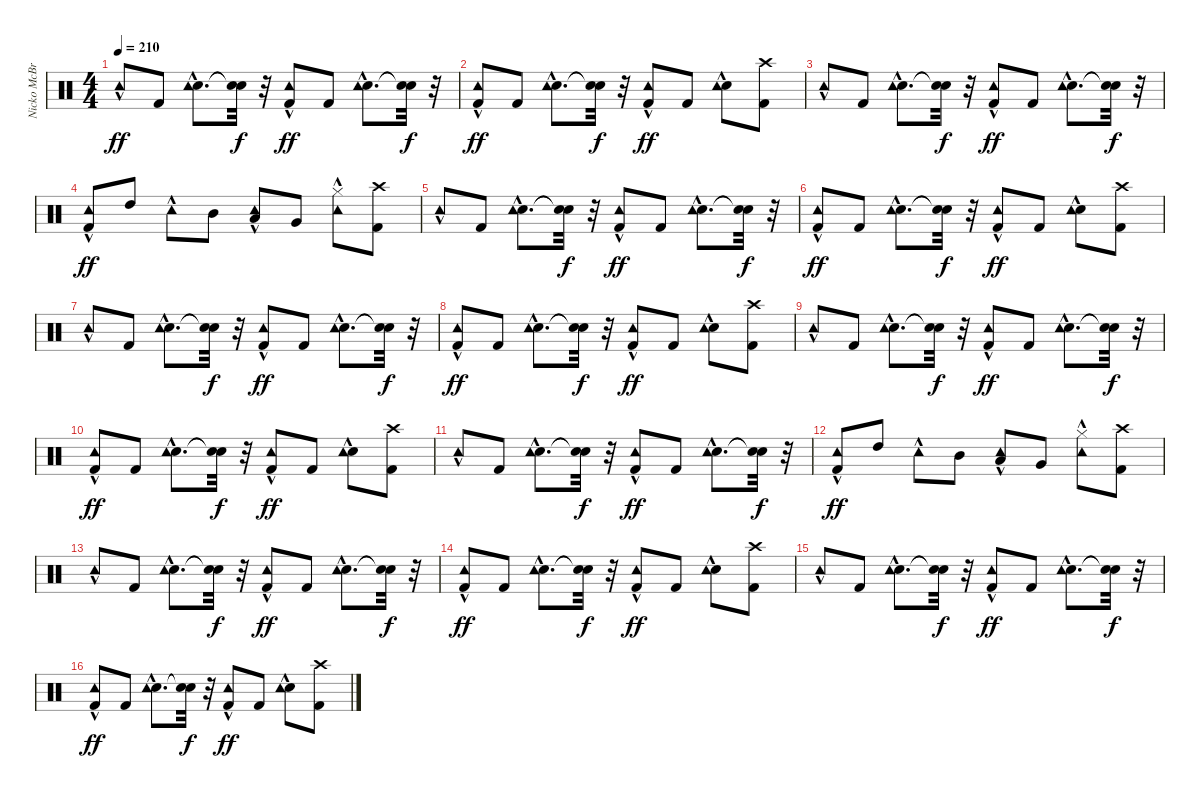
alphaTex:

\track ("Nicko McBrain" "Nicko McBr") {instrument percussion}
\staff {score}
\articulation defaults
\ts (4 4)
\tempo 210
\clef neutral
\ks c "Tambourine (hit)"{hac}.8{dy ff} "Kick (hit) 2".8
("Snare (hit) 2"{hac} "Tambourine (hit)"{hac}).8{d} ("Snare (hit)"{t} "Snare (hit)"{t}).32{dy f} r.32 ("Kick (hit) 2" "Tambourine (hit)"{hac}).8{dy ff} "Kick (hit) 2".8 ("Snare (hit) 2"{hac} "Tambourine (hit)"{hac}).8{d} ("Snare (hit)"{t} "Snare (hit)"{t}).32{dy f} r.32 |
("Kick (hit) 2" "Tambourine (hit)"{hac}).8{dy ff} "Kick (hit) 2".8 ("Snare (hit) 2"{hac} "Tambourine (hit)"{hac}).8{d} ("Snare (hit)"{t} "Snare (hit)"{t}).32{dy f} r.32 ("Kick (hit) 2" "Tambourine (hit)"{hac}).8{dy ff} "Kick (hit) 2".8 ("Snare (hit) 2" "Tambourine (hit)"{hac}).8 ("Kick (hit) 2" "Crash high (hit)").8 |
"Tambourine (hit)"{hac}.8 "Kick (hit) 2".8 ("Snare (hit) 2"{hac} "Tambourine (hit)"{hac}).8{d} ("Snare (hit)"{t} "Snare (hit)"{t}).32{dy f} r.32 ("Kick (hit) 2" "Tambourine (hit)"{hac}).8{dy ff} "Kick (hit) 2".8 ("Snare (hit) 2"{hac} "Tambourine (hit)"{hac}).8{d} ("Snare (hit)"{t} "Snare (hit)"{t}).32{dy f} r.32 |
("Kick (hit) 2" "Tambourine (hit)"{hac}).8{dy ff} "High Tom (hit)".8 "Tambourine (hit)"{hac}.8 "Mid Tom (hit)".8 ("Low Tom (hit)" "Tambourine (hit)"{hac}).8 "Very Low Tom (hit)".8 ("Hi-Hat (closed)" "Tambourine (hit)"{hac}).8 ("Kick (hit) 2" "Crash high (hit)").8 |
"Tambourine (hit)"{hac}.8 "Kick (hit) 2".8 ("Snare (hit) 2"{hac} "Tambourine (hit)"{hac}).8{d} ("Snare (hit)"{t} "Snare (hit)"{t}).32{dy f} r.32 ("Kick (hit) 2" "Tambourine (hit)"{hac}).8{dy ff} "Kick (hit) 2".8 ("Snare (hit) 2"{hac} "Tambourine (hit)"{hac}).8{d} ("Snare (hit)"{t} "Snare (hit)"{t}).32{dy f} r.32 |
("Kick (hit) 2" "Tambourine (hit)"{hac}).8{dy ff} "Kick (hit) 2".8 ("Snare (hit) 2"{hac} "Tambourine (hit)"{hac}).8{d} ("Snare (hit)"{t} "Snare (hit)"{t}).32{dy f} r.32 ("Kick (hit) 2" "Tambourine (hit)"{hac}).8{dy ff} "Kick (hit) 2".8 ("Snare (hit) 2" "Tambourine (hit)"{hac}).8 ("Kick (hit) 2" "Crash high (hit)").8 |
"Tambourine (hit)"{hac}.8 "Kick (hit) 2".8 ("Snare (hit) 2"{hac} "Tambourine (hit)"{hac}).8{d} ("Snare (hit)"{t} "Snare (hit)"{t}).32{dy f} r.32 ("Kick (hit) 2" "Tambourine (hit)"{hac}).8{dy ff} "Kick (hit) 2".8 ("Snare (hit) 2"{hac} "Tambourine (hit)"{hac}).8{d} ("Snare (hit)"{t} "Snare (hit)"{t}).32{dy f} r.32 |
("Kick (hit) 2" "Tambourine (hit)"{hac}).8{dy ff} "Kick (hit) 2".8 ("Snare (hit) 2"{hac} "Tambourine (hit)"{hac}).8{d} ("Snare (hit)"{t} "Snare (hit)"{t}).32{dy f} r.32 ("Kick (hit) 2" "Tambourine (hit)"{hac}).8{dy ff} "Kick (hit) 2".8 ("Snare (hit) 2" "Tambourine (hit)"{hac}).8 ("Kick (hit) 2" "Crash high (hit)").8 |
"Tambourine (hit)"{hac}.8 "Kick (hit) 2".8 ("Snare (hit) 2"{hac} "Tambourine (hit)"{hac}).8{d} ("Snare (hit)"{t} "Snare (hit)"{t}).32{dy f} r.32 ("Kick (hit) 2" "Tambourine (hit)"{hac}).8{dy ff} "Kick (hit) 2".8 ("Snare (hit) 2"{hac} "Tambourine (hit)"{hac}).8{d} ("Snare (hit)"{t} "Snare (hit)"{t}).32{dy f} r.32 |
("Kick (hit) 2" "Tambourine (hit)"{hac}).8{dy ff} "Kick (hit) 2".8 ("Snare (hit) 2"{hac} "Tambourine (hit)"{hac}).8{d} ("Snare (hit)"{t} "Snare (hit)"{t}).32{dy f} r.32 ("Kick (hit) 2" "Tambourine (hit)"{hac}).8{dy ff} "Kick (hit) 2".8 ("Snare (hit) 2" "Tambourine (hit)"{hac}).8 ("Kick (hit) 2" "Crash high (hit)").8 |
"Tambourine (hit)"{hac}.8 "Kick (hit) 2".8 ("Snare (hit) 2"{hac} "Tambourine (hit)"{hac}).8{d} ("Snare (hit)"{t} "Snare (hit)"{t}).32{dy f} r.32 ("Kick (hit) 2" "Tambourine (hit)"{hac}).8{dy ff} "Kick (hit) 2".8 ("Snare (hit) 2"{hac} "Tambourine (hit)"{hac}).8{d} ("Snare (hit)"{t} "Snare (hit)"{t}).32{dy f} r.32 |
("Kick (hit) 2" "Tambourine (hit)"{hac}).8{dy ff} "High Tom (hit)".8 "Tambourine (hit)"{hac}.8 "Mid Tom (hit)".8 ("Low Tom (hit)" "Tambourine (hit)"{hac}).8 "Very Low Tom (hit)".8 ("Hi-Hat (closed)" "Tambourine (hit)"{hac}).8 ("Kick (hit) 2" "Crash high (hit)").8 |
"Tambourine (hit)"{hac}.8 "Kick (hit) 2".8 ("Snare (hit) 2"{hac} "Tambourine (hit)"{hac}).8{d} ("Snare (hit)"{t} "Snare (hit)"{t}).32{dy f} r.32 ("Kick (hit) 2" "Tambourine (hit)"{hac}).8{dy ff} "Kick (hit) 2".8 ("Snare (hit) 2"{hac} "Tambourine (hit)"{hac}).8{d} ("Snare (hit)"{t} "Snare (hit)"{t}).32{dy f} r.32 |
("Kick (hit) 2" "Tambourine (hit)"{hac}).8{dy ff} "Kick (hit) 2".8 ("Snare (hit) 2"{hac} "Tambourine (hit)"{hac}).8{d} ("Snare (hit)"{t} "Snare (hit)"{t}).32{dy f} r.32 ("Kick (hit) 2" "Tambourine (hit)"{hac}).8{dy ff} "Kick (hit) 2".8 ("Snare (hit) 2" "Tambourine (hit)"{hac}).8 ("Kick (hit) 2" "Crash high (hit)").8 |
"Tambourine (hit)"{hac}.8 "Kick (hit) 2".8 ("Snare (hit) 2"{hac} "Tambourine (hit)"{hac}).8{d} ("Snare (hit)"{t} "Snare (hit)"{t}).32{dy f} r.32 ("Kick (hit) 2" "Tambourine (hit)"{hac}).8{dy ff} "Kick (hit) 2".8 ("Snare (hit) 2"{hac} "Tambourine (hit)"{hac}).8{d} ("Snare (hit)"{t} "Snare (hit)"{t}).32{dy f} r.32 |
("Kick (hit) 2" "Tambourine (hit)"{hac}).8{dy ff} "Kick (hit) 2".8 ("Snare (hit) 2"{hac} "Tambourine (hit)"{hac}).8{d} ("Snare (hit)"{t} "Snare (hit)"{t}).32{dy f} r.32 ("Kick (hit) 2" "Tambourine (hit)"{hac}).8{dy ff} "Kick (hit) 2".8 ("Snare (hit) 2" "Tambourine (hit)"{hac}).8 ("Kick (hit) 2" "Crash high (hit)").8
